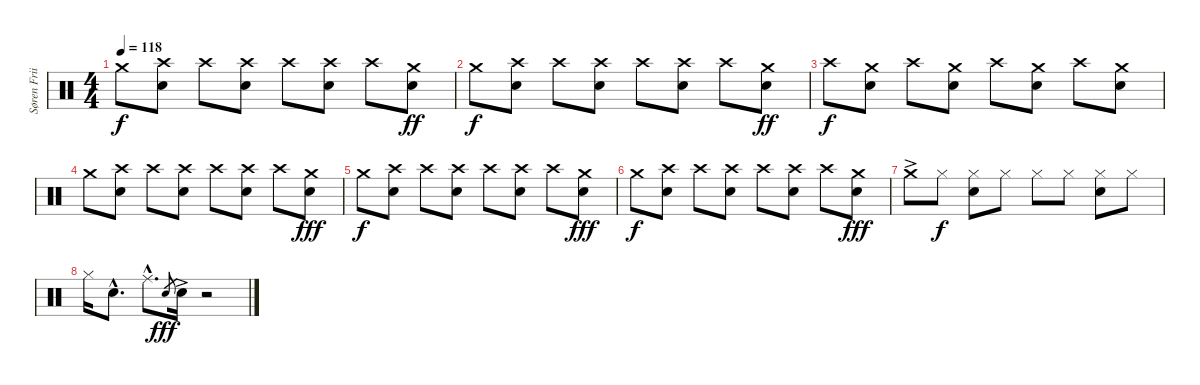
\track ("Søren Friis (Drums)" "Søren Frii") {instrument percussion}
\staff {score}
\articulation defaults
\ts (4 4)
\tempo 118
\clef neutral
\ks c "Crash medium (hit)".8{dy f}
("Crash high (hit)" "Snare (hit) 2").8 "Crash high (hit)".8 ("Crash high (hit)" "Snare (hit) 2").8 "Crash high (hit)".8 ("Crash high (hit)" "Snare (hit) 2").8 "Crash high (hit)".8 ("Crash medium (hit)" "Snare (hit) 2").8{dy ff} |
"Crash medium (hit)".8{dy f} ("Crash high (hit)" "Snare (hit) 2").8 "Crash high (hit)".8 ("Crash high (hit)" "Snare (hit) 2").8 "Crash high (hit)".8 ("Crash high (hit)" "Snare (hit) 2").8 "Crash high (hit)".8 ("Crash medium (hit)" "Snare (hit) 2").8{dy ff} |
"Crash high (hit)".8{dy f} ("Crash medium (hit)" "Snare (hit) 2").8 "Crash high (hit)".8 ("Crash medium (hit)" "Snare (hit) 2").8 "Crash high (hit)".8 ("Crash medium (hit)" "Snare (hit) 2").8 "Crash high (hit)".8 ("Crash medium (hit)" "Snare (hit) 2").8 |
"Crash medium (hit)".8 ("Crash high (hit)" "Snare (hit) 2").8 "Crash high (hit)".8 ("Crash high (hit)" "Snare (hit) 2").8 "Crash high (hit)".8 ("Crash high (hit)" "Snare (hit) 2").8 "Crash high (hit)".8 ("Crash medium (hit)" "Snare (hit) 2").8{dy fff} |
"Crash medium (hit)".8{dy f} ("Crash high (hit)" "Snare (hit) 2").8 "Crash high (hit)".8 ("Crash high (hit)" "Snare (hit) 2").8 "Crash high (hit)".8 ("Crash high (hit)" "Snare (hit) 2").8 "Crash high (hit)".8 ("Crash medium (hit)" "Snare (hit) 2").8{dy fff} |
"Crash medium (hit)".8{dy f} ("Crash high (hit)" "Snare (hit) 2").8 "Crash high (hit)".8 ("Crash high (hit)" "Snare (hit) 2").8 "Crash high (hit)".8 ("Crash high (hit)" "Snare (hit) 2").8 "Crash high (hit)".8 ("Crash medium (hit)" "Snare (hit) 2").8{dy fff} |
"Crash medium (hit)"{ac}.8 "Hi-Hat (closed)".8{dy f} ("Hi-Hat (closed)" "Snare (hit) 2").8 "Hi-Hat (closed)".8 "Hi-Hat (closed)".8 "Hi-Hat (closed)".8 ("Hi-Hat (closed)" "Snare (hit) 2").8 "Hi-Hat (closed)".8 |
"Hi-Hat (closed)".16 "Snare (hit) 2"{hac}.8{d} "Ride (middle)"{hac}.8{d} "Snare (hit) 2".8{gr dy fff} "Snare (hit) 2"{ac}.16 r.2
